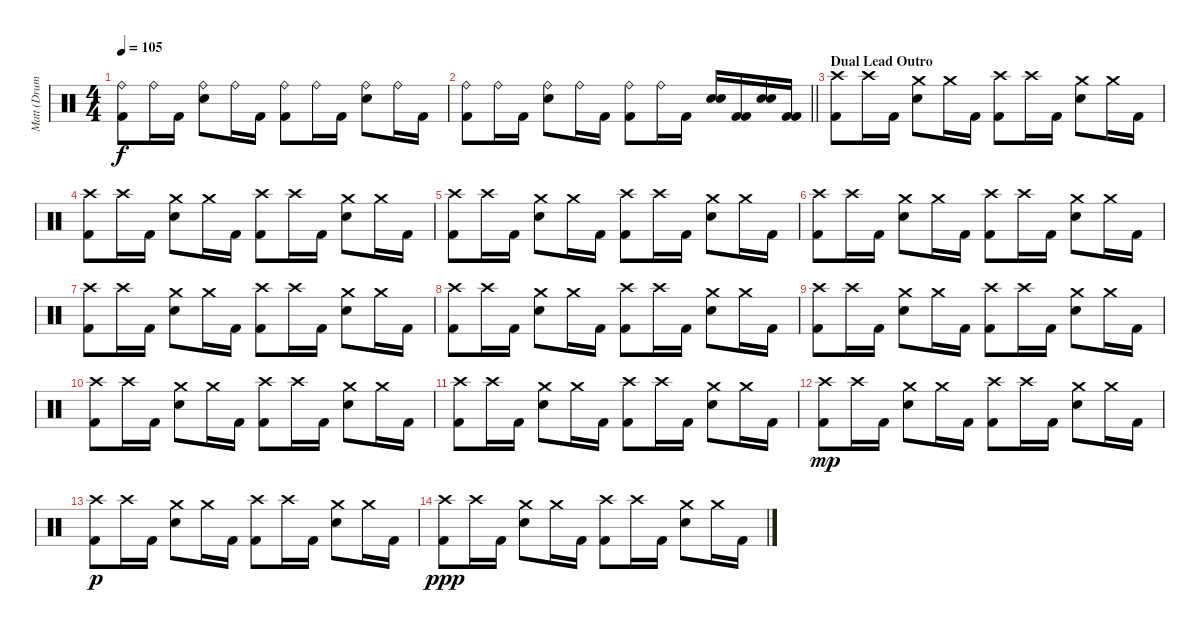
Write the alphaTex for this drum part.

\track ("Matt (Drums)" "Matt (Drum") {instrument percussion}
\staff {score}
\articulation defaults
\ts (4 4)
\tempo 105
\clef neutral
\ks c
("Ride (bell)" "Kick (hit) 2").8{dy f} "Ride (bell)".16 "Kick (hit) 2".16 ("Ride (bell)" "Electric Snare (hit)").8 "Ride (bell)".16 "Kick (hit) 2".16 ("Ride (bell)" "Kick (hit) 2").8 "Ride (bell)".16 "Kick (hit) 2".16 ("Ride (bell)" "Electric Snare (hit)").8 "Ride (bell)".16 "Kick (hit) 2".16 |
\barLineRight lightlight
("Ride (bell)" "Kick (hit) 2").8 "Ride (bell)".16 "Kick (hit) 2".16 ("Ride (bell)" "Electric Snare (hit)").8 "Ride (bell)".16 "Kick (hit) 2".16 ("Ride (bell)" "Kick (hit) 2").8 "Ride (bell)".16 "Kick (hit) 2".16 ("Electric Snare (hit)" "Electric Snare (hit)").16 ("Kick (hit) 2" "Kick (hit) 2").16 ("Electric Snare (hit)" "Electric Snare (hit)").16 ("Kick (hit) 2" "Kick (hit) 2").16 |
\section ("" "Dual Lead Outro")
("Crash high (hit)" "Kick (hit) 2").8 "Crash high (hit)".16 "Kick (hit) 2".16 ("Crash medium (hit)" "Electric Snare (hit)").8 "Crash medium (hit)".16 "Kick (hit) 2".16 ("Crash high (hit)" "Kick (hit) 2").8 "Crash high (hit)".16 "Kick (hit) 2".16 ("Crash medium (hit)" "Electric Snare (hit)").8 "Crash medium (hit)".16 "Kick (hit) 2".16 |
("Crash high (hit)" "Kick (hit) 2").8 "Crash high (hit)".16 "Kick (hit) 2".16 ("Crash medium (hit)" "Electric Snare (hit)").8 "Crash medium (hit)".16 "Kick (hit) 2".16 ("Crash high (hit)" "Kick (hit) 2").8 "Crash high (hit)".16 "Kick (hit) 2".16 ("Crash medium (hit)" "Electric Snare (hit)").8 "Crash medium (hit)".16 "Kick (hit) 2".16 |
("Crash high (hit)" "Kick (hit) 2").8 "Crash high (hit)".16 "Kick (hit) 2".16 ("Crash medium (hit)" "Electric Snare (hit)").8 "Crash medium (hit)".16 "Kick (hit) 2".16 ("Crash high (hit)" "Kick (hit) 2").8 "Crash high (hit)".16 "Kick (hit) 2".16 ("Crash medium (hit)" "Electric Snare (hit)").8 "Crash medium (hit)".16 "Kick (hit) 2".16 |
("Crash high (hit)" "Kick (hit) 2").8 "Crash high (hit)".16 "Kick (hit) 2".16 ("Crash medium (hit)" "Electric Snare (hit)").8 "Crash medium (hit)".16 "Kick (hit) 2".16 ("Crash high (hit)" "Kick (hit) 2").8 "Crash high (hit)".16 "Kick (hit) 2".16 ("Crash medium (hit)" "Electric Snare (hit)").8 "Crash medium (hit)".16 "Kick (hit) 2".16 |
("Crash high (hit)" "Kick (hit) 2").8 "Crash high (hit)".16 "Kick (hit) 2".16 ("Crash medium (hit)" "Electric Snare (hit)").8 "Crash medium (hit)".16 "Kick (hit) 2".16 ("Crash high (hit)" "Kick (hit) 2").8 "Crash high (hit)".16 "Kick (hit) 2".16 ("Crash medium (hit)" "Electric Snare (hit)").8 "Crash medium (hit)".16 "Kick (hit) 2".16 |
("Crash high (hit)" "Kick (hit) 2").8 "Crash high (hit)".16 "Kick (hit) 2".16 ("Crash medium (hit)" "Electric Snare (hit)").8 "Crash medium (hit)".16 "Kick (hit) 2".16 ("Crash high (hit)" "Kick (hit) 2").8 "Crash high (hit)".16 "Kick (hit) 2".16 ("Crash medium (hit)" "Electric Snare (hit)").8 "Crash medium (hit)".16 "Kick (hit) 2".16 |
("Crash high (hit)" "Kick (hit) 2").8 "Crash high (hit)".16 "Kick (hit) 2".16 ("Crash medium (hit)" "Electric Snare (hit)").8 "Crash medium (hit)".16 "Kick (hit) 2".16 ("Crash high (hit)" "Kick (hit) 2").8 "Crash high (hit)".16 "Kick (hit) 2".16 ("Crash medium (hit)" "Electric Snare (hit)").8 "Crash medium (hit)".16 "Kick (hit) 2".16 |
("Crash high (hit)" "Kick (hit) 2").8 "Crash high (hit)".16 "Kick (hit) 2".16 ("Crash medium (hit)" "Electric Snare (hit)").8 "Crash medium (hit)".16 "Kick (hit) 2".16 ("Crash high (hit)" "Kick (hit) 2").8 "Crash high (hit)".16 "Kick (hit) 2".16 ("Crash medium (hit)" "Electric Snare (hit)").8 "Crash medium (hit)".16 "Kick (hit) 2".16 |
("Crash high (hit)" "Kick (hit) 2").8 "Crash high (hit)".16 "Kick (hit) 2".16 ("Crash medium (hit)" "Electric Snare (hit)").8 "Crash medium (hit)".16 "Kick (hit) 2".16 ("Crash high (hit)" "Kick (hit) 2").8 "Crash high (hit)".16 "Kick (hit) 2".16 ("Crash medium (hit)" "Electric Snare (hit)").8 "Crash medium (hit)".16 "Kick (hit) 2".16 |
("Crash high (hit)" "Kick (hit) 2").8{dy mp} "Crash high (hit)".16 "Kick (hit) 2".16 ("Crash medium (hit)" "Electric Snare (hit)").8 "Crash medium (hit)".16 "Kick (hit) 2".16 ("Crash high (hit)" "Kick (hit) 2").8 "Crash high (hit)".16 "Kick (hit) 2".16 ("Crash medium (hit)" "Electric Snare (hit)").8 "Crash medium (hit)".16 "Kick (hit) 2".16 |
("Crash high (hit)" "Kick (hit) 2").8{dy p} "Crash high (hit)".16 "Kick (hit) 2".16 ("Crash medium (hit)" "Electric Snare (hit)").8 "Crash medium (hit)".16 "Kick (hit) 2".16 ("Crash high (hit)" "Kick (hit) 2").8 "Crash high (hit)".16 "Kick (hit) 2".16 ("Crash medium (hit)" "Electric Snare (hit)").8 "Crash medium (hit)".16 "Kick (hit) 2".16 |
("Crash high (hit)" "Kick (hit) 2").8{dy ppp} "Crash high (hit)".16 "Kick (hit) 2".16 ("Crash medium (hit)" "Electric Snare (hit)").8 "Crash medium (hit)".16 "Kick (hit) 2".16 ("Crash high (hit)" "Kick (hit) 2").8 "Crash high (hit)".16 "Kick (hit) 2".16 ("Crash medium (hit)" "Electric Snare (hit)").8 "Crash medium (hit)".16 "Kick (hit) 2".16
